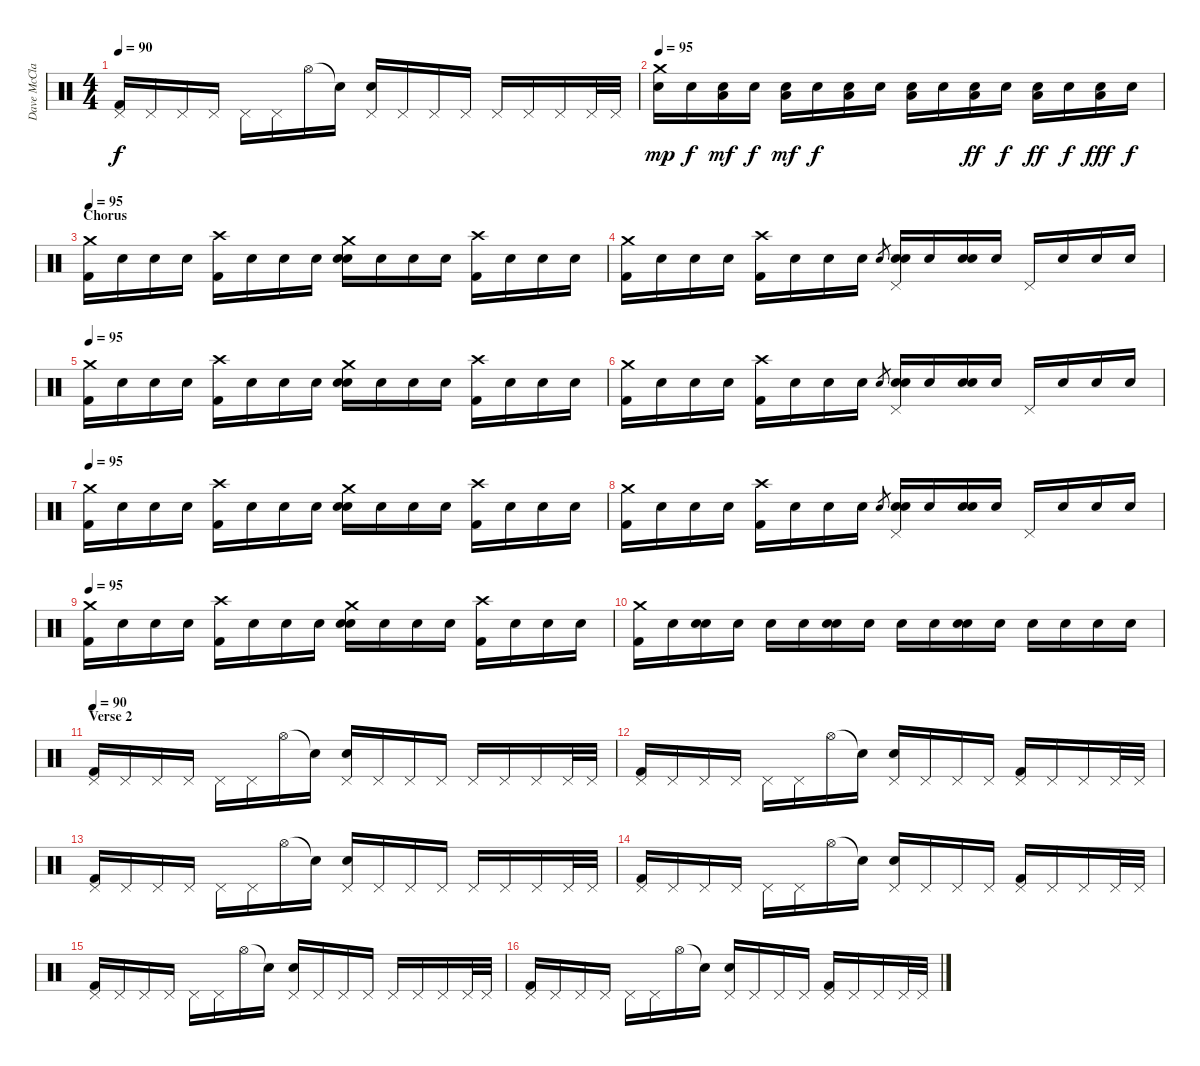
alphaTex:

\track ("Dave McClain - Drums" "Dave McCla") {instrument percussion}
\staff {score}
\articulation defaults
\ts (4 4)
\tempo 90
\clef neutral
\ks c
("Pedal Hi-Hat (hit)" "Kick (hit) 2").16{dy f} "Pedal Hi-Hat (hit)".16 "Pedal Hi-Hat (hit)".16 "Pedal Hi-Hat (hit)".16 "Pedal Hi-Hat (hit)".16 "Pedal Hi-Hat (hit)".16 "Hi-Hat (open)".16 "Snare (hit)"{t}.16 ("Pedal Hi-Hat (hit)" "Electric Snare (hit)").16 "Pedal Hi-Hat (hit)".16 "Pedal Hi-Hat (hit)".16 "Pedal Hi-Hat (hit)".16 "Pedal Hi-Hat (hit)".16 "Pedal Hi-Hat (hit)".16 "Pedal Hi-Hat (hit)".16 "Pedal Hi-Hat (hit)".32 "Pedal Hi-Hat (hit)".32 |
\tempo 95
("Crash medium (hit)" "Snare (hit) 2").16{dy mp} "Snare (hit)".16{dy f} ("Low Floor Tom (hit)" "Snare (hit) 2").16{dy mf} "Snare (hit)".16{dy f} ("Low Floor Tom (hit)" "Snare (hit) 2").16{dy mf} "Snare (hit)".16{dy f} ("Low Floor Tom (hit)" "Snare (hit) 2").16 "Snare (hit)".16 ("Low Floor Tom (hit)" "Snare (hit) 2").16 "Snare (hit)".16 ("Low Floor Tom (hit)" "Snare (hit) 2").16{dy ff} "Snare (hit)".16{dy f} ("Low Floor Tom (hit)" "Snare (hit) 2").16{dy ff} "Snare (hit)".16{dy f} ("Low Floor Tom (hit)" "Snare (hit) 2").16{dy fff} "Snare (hit)".16{dy f} |
\section ("" "Chorus")
\tempo 95
("Crash medium (hit)" "Kick (hit) 2").16{volume 16 balance 8} "Snare (hit)".16 "Snare (hit)".16 "Snare (hit)".16 ("Crash high (hit)" "Kick (hit) 2").16 "Snare (hit)".16 "Snare (hit)".16 "Snare (hit)".16 ("Crash medium (hit)" "Electric Snare (hit)" "Snare (hit) 2").16 "Snare (hit)".16 "Snare (hit)".16 "Snare (hit)".16 ("Crash high (hit)" "Kick (hit) 2").16 "Snare (hit)".16 "Snare (hit)".16 "Snare (hit)".16 |
("Crash medium (hit)" "Kick (hit) 2").16 "Snare (hit)".16 "Snare (hit)".16 "Snare (hit)".16 ("Crash high (hit)" "Kick (hit) 2").16 "Snare (hit)".16 "Snare (hit)".16 "Snare (hit)".16 "Electric Snare (hit)".8{gr} ("Pedal Hi-Hat (hit)" "Electric Snare (hit)" "Snare (hit) 2").16 "Snare (hit)".16 ("Electric Snare (hit)" "Snare (hit) 2").16 "Snare (hit)".16 "Pedal Hi-Hat (hit)".16 "Snare (hit)".16 "Snare (hit)".16 "Snare (hit)".16 |
\tempo 95
("Crash medium (hit)" "Kick (hit) 2").16{volume 16 balance 8} "Snare (hit)".16 "Snare (hit)".16 "Snare (hit)".16 ("Crash high (hit)" "Kick (hit) 2").16 "Snare (hit)".16 "Snare (hit)".16 "Snare (hit)".16 ("Crash medium (hit)" "Electric Snare (hit)" "Snare (hit) 2").16 "Snare (hit)".16 "Snare (hit)".16 "Snare (hit)".16 ("Crash high (hit)" "Kick (hit) 2").16 "Snare (hit)".16 "Snare (hit)".16 "Snare (hit)".16 |
("Crash medium (hit)" "Kick (hit) 2").16 "Snare (hit)".16 "Snare (hit)".16 "Snare (hit)".16 ("Crash high (hit)" "Kick (hit) 2").16 "Snare (hit)".16 "Snare (hit)".16 "Snare (hit)".16 "Electric Snare (hit)".8{gr} ("Pedal Hi-Hat (hit)" "Electric Snare (hit)" "Snare (hit) 2").16 "Snare (hit)".16 ("Electric Snare (hit)" "Snare (hit) 2").16 "Snare (hit)".16 "Pedal Hi-Hat (hit)".16 "Snare (hit)".16 "Snare (hit)".16 "Snare (hit)".16 |
\tempo 95
("Crash medium (hit)" "Kick (hit) 2").16{volume 16 balance 8} "Snare (hit)".16 "Snare (hit)".16 "Snare (hit)".16 ("Crash high (hit)" "Kick (hit) 2").16 "Snare (hit)".16 "Snare (hit)".16 "Snare (hit)".16 ("Crash medium (hit)" "Electric Snare (hit)" "Snare (hit) 2").16 "Snare (hit)".16 "Snare (hit)".16 "Snare (hit)".16 ("Crash high (hit)" "Kick (hit) 2").16 "Snare (hit)".16 "Snare (hit)".16 "Snare (hit)".16 |
("Crash medium (hit)" "Kick (hit) 2").16 "Snare (hit)".16 "Snare (hit)".16 "Snare (hit)".16 ("Crash high (hit)" "Kick (hit) 2").16 "Snare (hit)".16 "Snare (hit)".16 "Snare (hit)".16 "Electric Snare (hit)".8{gr} ("Pedal Hi-Hat (hit)" "Electric Snare (hit)" "Snare (hit) 2").16 "Snare (hit)".16 ("Electric Snare (hit)" "Snare (hit) 2").16 "Snare (hit)".16 "Pedal Hi-Hat (hit)".16 "Snare (hit)".16 "Snare (hit)".16 "Snare (hit)".16 |
\tempo 95
("Crash medium (hit)" "Kick (hit) 2").16 "Snare (hit)".16 "Snare (hit)".16 "Snare (hit)".16 ("Crash high (hit)" "Kick (hit) 2").16 "Snare (hit)".16 "Snare (hit)".16 "Snare (hit)".16 ("Crash medium (hit)" "Electric Snare (hit)" "Snare (hit) 2").16 "Snare (hit)".16 "Snare (hit)".16 "Snare (hit)".16 ("Crash high (hit)" "Kick (hit) 2").16 "Snare (hit)".16 "Snare (hit)".16 "Snare (hit)".16 |
("Crash medium (hit)" "Kick (hit) 2").16 "Snare (hit)".16 ("Electric Snare (hit)" "Snare (hit) 2").16 "Snare (hit)".16 "Snare (hit) 2".16 "Snare (hit)".16 ("Electric Snare (hit)" "Snare (hit) 2").16 "Snare (hit)".16 "Snare (hit) 2".16 "Snare (hit)".16 ("Electric Snare (hit)" "Snare (hit) 2").16 "Snare (hit)".16 "Snare (hit) 2".16 "Snare (hit) 2".16 "Snare (hit) 2".16 "Snare (hit) 2".16 |
\section ("" "Verse 2")
\tempo 90
("Pedal Hi-Hat (hit)" "Kick (hit) 2").16{volume 16 balance 8} "Pedal Hi-Hat (hit)".16 "Pedal Hi-Hat (hit)".16 "Pedal Hi-Hat (hit)".16 "Pedal Hi-Hat (hit)".16 "Pedal Hi-Hat (hit)".16 "Hi-Hat (open)".16 "Snare (hit)"{t}.16 ("Pedal Hi-Hat (hit)" "Electric Snare (hit)").16 "Pedal Hi-Hat (hit)".16 "Pedal Hi-Hat (hit)".16 "Pedal Hi-Hat (hit)".16 "Pedal Hi-Hat (hit)".16 "Pedal Hi-Hat (hit)".16 "Pedal Hi-Hat (hit)".16 "Pedal Hi-Hat (hit)".32 "Pedal Hi-Hat (hit)".32 |
("Pedal Hi-Hat (hit)" "Kick (hit) 2").16 "Pedal Hi-Hat (hit)".16 "Pedal Hi-Hat (hit)".16 "Pedal Hi-Hat (hit)".16 "Pedal Hi-Hat (hit)".16 "Pedal Hi-Hat (hit)".16 "Hi-Hat (open)".16 "Snare (hit)"{t}.16 ("Pedal Hi-Hat (hit)" "Electric Snare (hit)").16 "Pedal Hi-Hat (hit)".16 "Pedal Hi-Hat (hit)".16 "Pedal Hi-Hat (hit)".16 ("Pedal Hi-Hat (hit)" "Kick (hit) 2").16 "Pedal Hi-Hat (hit)".16 "Pedal Hi-Hat (hit)".16 "Pedal Hi-Hat (hit)".32 "Pedal Hi-Hat (hit)".32 |
("Pedal Hi-Hat (hit)" "Kick (hit) 2").16 "Pedal Hi-Hat (hit)".16 "Pedal Hi-Hat (hit)".16 "Pedal Hi-Hat (hit)".16 "Pedal Hi-Hat (hit)".16 "Pedal Hi-Hat (hit)".16 "Hi-Hat (open)".16 "Snare (hit)"{t}.16 ("Pedal Hi-Hat (hit)" "Electric Snare (hit)").16 "Pedal Hi-Hat (hit)".16 "Pedal Hi-Hat (hit)".16 "Pedal Hi-Hat (hit)".16 "Pedal Hi-Hat (hit)".16 "Pedal Hi-Hat (hit)".16 "Pedal Hi-Hat (hit)".16 "Pedal Hi-Hat (hit)".32 "Pedal Hi-Hat (hit)".32 |
("Pedal Hi-Hat (hit)" "Kick (hit) 2").16 "Pedal Hi-Hat (hit)".16 "Pedal Hi-Hat (hit)".16 "Pedal Hi-Hat (hit)".16 "Pedal Hi-Hat (hit)".16 "Pedal Hi-Hat (hit)".16 "Hi-Hat (open)".16 "Snare (hit)"{t}.16 ("Pedal Hi-Hat (hit)" "Electric Snare (hit)").16 "Pedal Hi-Hat (hit)".16 "Pedal Hi-Hat (hit)".16 "Pedal Hi-Hat (hit)".16 ("Pedal Hi-Hat (hit)" "Kick (hit) 2").16 "Pedal Hi-Hat (hit)".16 "Pedal Hi-Hat (hit)".16 "Pedal Hi-Hat (hit)".32 "Pedal Hi-Hat (hit)".32 |
("Pedal Hi-Hat (hit)" "Kick (hit) 2").16 "Pedal Hi-Hat (hit)".16 "Pedal Hi-Hat (hit)".16 "Pedal Hi-Hat (hit)".16 "Pedal Hi-Hat (hit)".16 "Pedal Hi-Hat (hit)".16 "Hi-Hat (open)".16 "Snare (hit)"{t}.16 ("Pedal Hi-Hat (hit)" "Electric Snare (hit)").16 "Pedal Hi-Hat (hit)".16 "Pedal Hi-Hat (hit)".16 "Pedal Hi-Hat (hit)".16 "Pedal Hi-Hat (hit)".16 "Pedal Hi-Hat (hit)".16 "Pedal Hi-Hat (hit)".16 "Pedal Hi-Hat (hit)".32 "Pedal Hi-Hat (hit)".32 |
("Pedal Hi-Hat (hit)" "Kick (hit) 2").16 "Pedal Hi-Hat (hit)".16 "Pedal Hi-Hat (hit)".16 "Pedal Hi-Hat (hit)".16 "Pedal Hi-Hat (hit)".16 "Pedal Hi-Hat (hit)".16 "Hi-Hat (open)".16 "Snare (hit)"{t}.16 ("Pedal Hi-Hat (hit)" "Electric Snare (hit)").16 "Pedal Hi-Hat (hit)".16 "Pedal Hi-Hat (hit)".16 "Pedal Hi-Hat (hit)".16 ("Pedal Hi-Hat (hit)" "Kick (hit) 2").16 "Pedal Hi-Hat (hit)".16 "Pedal Hi-Hat (hit)".16 "Pedal Hi-Hat (hit)".32 "Pedal Hi-Hat (hit)".32
